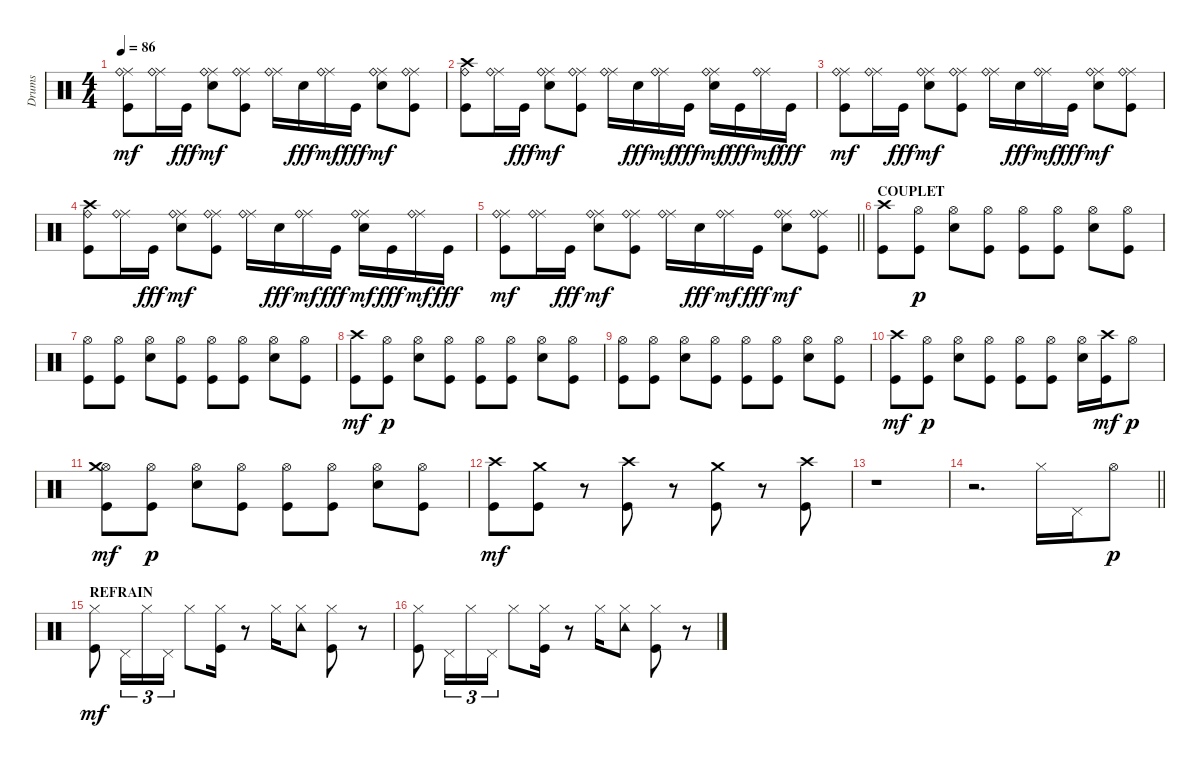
\track ("Drums" "Drums") {instrument percussion}
\staff {score}
\articulation defaults
\ts (4 4)
\tempo 86
\clef neutral
\ks c
("Kick (hit)" "Ride (middle)" "Ride (bell)").8{dy mf} ("Ride (middle)" "Ride (bell)").16 "Kick (hit)".16{dy fff} ("Electric Snare (hit)" "Ride (middle)" "Ride (bell)").8{dy mf} ("Kick (hit)" "Ride (middle)" "Ride (bell)").8 ("Ride (middle)" "Ride (bell)").16 "Electric Snare (hit)".16{dy fff} ("Ride (middle)" "Ride (bell)").16{dy mf} "Kick (hit)".16{dy fff} ("Electric Snare (hit)" "Ride (middle)" "Ride (bell)").8{dy mf} ("Kick (hit)" "Ride (middle)" "Ride (bell)").8 |
("Kick (hit)" "Crash high (hit)" "Ride (bell)").8 ("Ride (middle)" "Ride (bell)").16 "Kick (hit)".16{dy fff} ("Electric Snare (hit)" "Ride (middle)" "Ride (bell)").8{dy mf} ("Kick (hit)" "Ride (middle)" "Ride (bell)").8 ("Ride (middle)" "Ride (bell)").16 "Electric Snare (hit)".16{dy fff} ("Ride (middle)" "Ride (bell)").16{dy mf} "Kick (hit)".16{dy fff} ("Electric Snare (hit)" "Ride (middle)" "Ride (bell)").16{dy mf} "Kick (hit)".16{dy fff} ("Ride (middle)" "Ride (bell)").16{dy mf} "Kick (hit)".16{dy fff} |
("Kick (hit)" "Ride (middle)" "Ride (bell)").8{dy mf} ("Ride (middle)" "Ride (bell)").16 "Kick (hit)".16{dy fff} ("Electric Snare (hit)" "Ride (middle)" "Ride (bell)").8{dy mf} ("Kick (hit)" "Ride (middle)" "Ride (bell)").8 ("Ride (middle)" "Ride (bell)").16 "Electric Snare (hit)".16{dy fff} ("Ride (middle)" "Ride (bell)").16{dy mf} "Kick (hit)".16{dy fff} ("Electric Snare (hit)" "Ride (middle)" "Ride (bell)").8{dy mf} ("Kick (hit)" "Ride (middle)" "Ride (bell)").8 |
("Kick (hit)" "Crash high (hit)" "Ride (bell)").8 ("Ride (middle)" "Ride (bell)").16 "Kick (hit)".16{dy fff} ("Electric Snare (hit)" "Ride (middle)" "Ride (bell)").8{dy mf} ("Kick (hit)" "Ride (middle)" "Ride (bell)").8 ("Ride (middle)" "Ride (bell)").16 "Electric Snare (hit)".16{dy fff} ("Ride (middle)" "Ride (bell)").16{dy mf} "Kick (hit)".16{dy fff} ("Electric Snare (hit)" "Ride (middle)" "Ride (bell)").16{dy mf} "Kick (hit)".16{dy fff} ("Ride (middle)" "Ride (bell)").16{dy mf} "Kick (hit)".16{dy fff} |
\barLineRight lightlight
("Kick (hit)" "Ride (middle)" "Ride (bell)").8{dy mf} ("Ride (middle)" "Ride (bell)").16 "Kick (hit)".16{dy fff} ("Electric Snare (hit)" "Ride (middle)" "Ride (bell)").8{dy mf} ("Kick (hit)" "Ride (middle)" "Ride (bell)").8 ("Ride (middle)" "Ride (bell)").16 "Electric Snare (hit)".16{dy fff} ("Ride (middle)" "Ride (bell)").16{dy mf} "Kick (hit)".16{dy fff} ("Electric Snare (hit)" "Ride (middle)" "Ride (bell)").8{dy mf} ("Kick (hit)" "Ride (middle)" "Ride (bell)").8 |
\section ("" "COUPLET ")
("Kick (hit)" "Crash high (hit)").8 ("Kick (hit)" "Hi-Hat (open)").8{dy p} ("Electric Snare (hit)" "Hi-Hat (open)").8 ("Kick (hit)" "Hi-Hat (open)").8 ("Kick (hit)" "Hi-Hat (open)").8 ("Kick (hit)" "Hi-Hat (open)").8 ("Electric Snare (hit)" "Hi-Hat (open)").8 ("Kick (hit)" "Hi-Hat (open)").8 |
("Kick (hit)" "Hi-Hat (open)").8 ("Kick (hit)" "Hi-Hat (open)").8 ("Electric Snare (hit)" "Hi-Hat (open)").8 ("Kick (hit)" "Hi-Hat (open)").8 ("Kick (hit)" "Hi-Hat (open)").8 ("Kick (hit)" "Hi-Hat (open)").8 ("Electric Snare (hit)" "Hi-Hat (open)").8 ("Kick (hit)" "Hi-Hat (open)").8 |
("Kick (hit)" "Crash high (hit)").8{dy mf} ("Kick (hit)" "Hi-Hat (open)").8{dy p} ("Electric Snare (hit)" "Hi-Hat (open)").8 ("Kick (hit)" "Hi-Hat (open)").8 ("Kick (hit)" "Hi-Hat (open)").8 ("Kick (hit)" "Hi-Hat (open)").8 ("Electric Snare (hit)" "Hi-Hat (open)").8 ("Kick (hit)" "Hi-Hat (open)").8 |
("Kick (hit)" "Hi-Hat (open)").8 ("Kick (hit)" "Hi-Hat (open)").8 ("Electric Snare (hit)" "Hi-Hat (open)").8 ("Kick (hit)" "Hi-Hat (open)").8 ("Kick (hit)" "Hi-Hat (open)").8 ("Kick (hit)" "Hi-Hat (open)").8 ("Electric Snare (hit)" "Hi-Hat (open)").8 ("Kick (hit)" "Hi-Hat (open)").8 |
("Kick (hit)" "Crash high (hit)").8{dy mf} ("Kick (hit)" "Hi-Hat (open)").8{dy p} ("Electric Snare (hit)" "Hi-Hat (open)").8 ("Kick (hit)" "Hi-Hat (open)").8 ("Kick (hit)" "Hi-Hat (open)").8 ("Kick (hit)" "Hi-Hat (open)").8 ("Electric Snare (hit)" "Hi-Hat (open)").16 ("Kick (hit)" "Crash high (hit)").16{dy mf} "Hi-Hat (open)".8{dy p} |
("Kick (hit)" "Hi-Hat (open)" "Crash medium (hit)").8{dy mf} ("Kick (hit)" "Hi-Hat (open)").8{dy p} ("Electric Snare (hit)" "Hi-Hat (open)").8 ("Kick (hit)" "Hi-Hat (open)").8 ("Kick (hit)" "Hi-Hat (open)").8 ("Kick (hit)" "Hi-Hat (open)").8 ("Electric Snare (hit)" "Hi-Hat (open)").8 ("Kick (hit)" "Hi-Hat (open)").8 |
("Kick (hit)" "Crash high (hit)").8{dy mf} ("Kick (hit)" "Crash medium (hit)").8 r.8 ("Kick (hit)" "Crash high (hit)").8 r.8 ("Kick (hit)" "Crash medium (hit)").8 r.8 ("Kick (hit)" "Crash high (hit)").8 |
r.1 |
\barLineRight lightlight
r.2{d} "Hi-Hat (closed)".16 "Pedal Hi-Hat (hit)".16 "Hi-Hat (open)".8{dy p} |
\section ("" "REFRAIN")
("Kick (hit)" "Hi-Hat (closed)").8{dy mf} "Pedal Hi-Hat (hit)".16{tu (3 2)} "Hi-Hat (closed)".16{tu (3 2)} "Pedal Hi-Hat (hit)".16{tu (3 2)} "Hi-Hat (closed)".8 ("Kick (hit)" "Hi-Hat (closed)").16 r.8 "Hi-Hat (closed)".16 ("Hi-Hat (closed)" "Tambourine (hit)").8 ("Kick (hit)" "Hi-Hat (closed)").8 r.8 |
("Kick (hit)" "Hi-Hat (closed)").8 "Pedal Hi-Hat (hit)".16{tu (3 2)} "Hi-Hat (closed)".16{tu (3 2)} "Pedal Hi-Hat (hit)".16{tu (3 2)} "Hi-Hat (closed)".8 ("Kick (hit)" "Hi-Hat (closed)").16 r.8 "Hi-Hat (closed)".16 ("Hi-Hat (closed)" "Tambourine (hit)").8 ("Kick (hit)" "Hi-Hat (closed)").8 r.8
